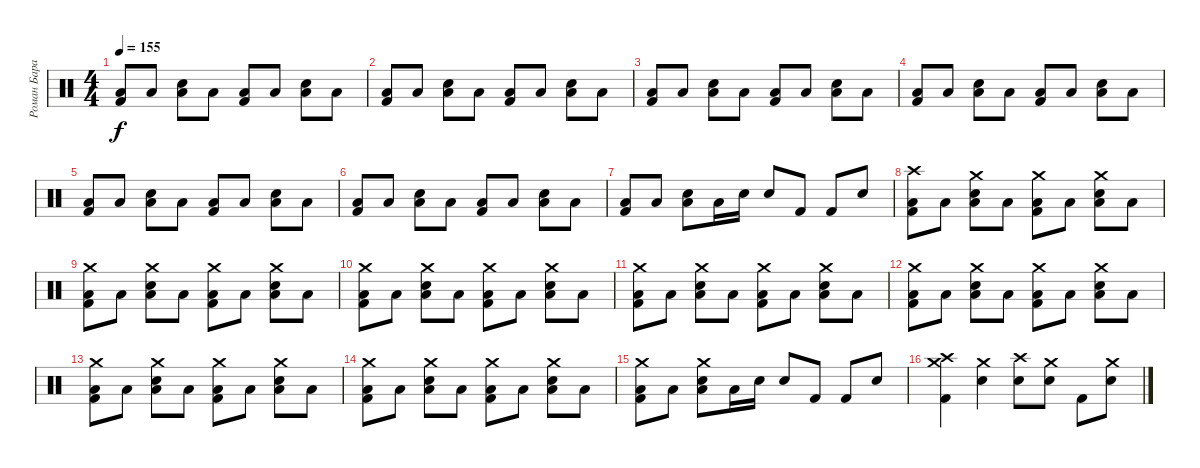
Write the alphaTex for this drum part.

\track ("Роман Баранюк (Meinl, Vic Firth, Peace)" "Роман Бара") {instrument percussion}
\staff {score}
\articulation defaults
\ts (4 4)
\tempo 155
\clef neutral
\ks c
("Low Tom (hit)" "Kick (hit) 2").8{dy f} "Low Tom (hit)".8 ("Snare (hit) 2" "Low Tom (hit)").8 "Low Tom (hit)".8 ("Low Tom (hit)" "Kick (hit) 2").8 "Low Tom (hit)".8 ("Snare (hit) 2" "Low Tom (hit)").8 "Low Tom (hit)".8 |
("Low Tom (hit)" "Kick (hit) 2").8 "Low Tom (hit)".8 ("Snare (hit) 2" "Low Tom (hit)").8 "Low Tom (hit)".8 ("Low Tom (hit)" "Kick (hit) 2").8 "Low Tom (hit)".8 ("Snare (hit) 2" "Low Tom (hit)").8 "Low Tom (hit)".8 |
("Low Tom (hit)" "Kick (hit) 2").8 "Low Tom (hit)".8 ("Snare (hit) 2" "Low Tom (hit)").8 "Low Tom (hit)".8 ("Low Tom (hit)" "Kick (hit) 2").8 "Low Tom (hit)".8 ("Snare (hit) 2" "Low Tom (hit)").8 "Low Tom (hit)".8 |
("Low Tom (hit)" "Kick (hit) 2").8 "Low Tom (hit)".8 ("Snare (hit) 2" "Low Tom (hit)").8 "Low Tom (hit)".8 ("Low Tom (hit)" "Kick (hit) 2").8 "Low Tom (hit)".8 ("Snare (hit) 2" "Low Tom (hit)").8 "Low Tom (hit)".8 |
("Low Tom (hit)" "Kick (hit) 2").8 "Low Tom (hit)".8 ("Snare (hit) 2" "Low Tom (hit)").8 "Low Tom (hit)".8 ("Low Tom (hit)" "Kick (hit) 2").8 "Low Tom (hit)".8 ("Snare (hit) 2" "Low Tom (hit)").8 "Low Tom (hit)".8 |
("Low Tom (hit)" "Kick (hit) 2").8 "Low Tom (hit)".8 ("Snare (hit) 2" "Low Tom (hit)").8 "Low Tom (hit)".8 ("Low Tom (hit)" "Kick (hit) 2").8 "Low Tom (hit)".8 ("Snare (hit) 2" "Low Tom (hit)").8 "Low Tom (hit)".8 |
("Low Tom (hit)" "Kick (hit) 2").8 "Low Tom (hit)".8 ("Snare (hit) 2" "Low Tom (hit)").8 "Low Tom (hit)".16 "Snare (hit) 2".16 "Snare (hit) 2".8 "Kick (hit) 2".8 "Kick (hit) 2".8 "Snare (hit) 2".8 |
("Crash high (hit)" "Low Tom (hit)" "Kick (hit) 2").8 "Low Tom (hit)".8 ("Crash medium (hit)" "Snare (hit) 2" "Low Tom (hit)").8 "Low Tom (hit)".8 ("Crash medium (hit)" "Low Tom (hit)" "Kick (hit) 2").8 "Low Tom (hit)".8 ("Crash medium (hit)" "Snare (hit) 2" "Low Tom (hit)").8 "Low Tom (hit)".8 |
("Crash medium (hit)" "Low Tom (hit)" "Kick (hit) 2").8 "Low Tom (hit)".8 ("Crash medium (hit)" "Snare (hit) 2" "Low Tom (hit)").8 "Low Tom (hit)".8 ("Crash medium (hit)" "Low Tom (hit)" "Kick (hit) 2").8 "Low Tom (hit)".8 ("Crash medium (hit)" "Snare (hit) 2" "Low Tom (hit)").8 "Low Tom (hit)".8 |
("Crash medium (hit)" "Low Tom (hit)" "Kick (hit) 2").8 "Low Tom (hit)".8 ("Crash medium (hit)" "Snare (hit) 2" "Low Tom (hit)").8 "Low Tom (hit)".8 ("Crash medium (hit)" "Low Tom (hit)" "Kick (hit) 2").8 "Low Tom (hit)".8 ("Crash medium (hit)" "Snare (hit) 2" "Low Tom (hit)").8 "Low Tom (hit)".8 |
("Crash medium (hit)" "Low Tom (hit)" "Kick (hit) 2").8 "Low Tom (hit)".8 ("Crash medium (hit)" "Snare (hit) 2" "Low Tom (hit)").8 "Low Tom (hit)".8 ("Crash medium (hit)" "Low Tom (hit)" "Kick (hit) 2").8 "Low Tom (hit)".8 ("Crash medium (hit)" "Snare (hit) 2" "Low Tom (hit)").8 "Low Tom (hit)".8 |
("Crash medium (hit)" "Low Tom (hit)" "Kick (hit) 2").8 "Low Tom (hit)".8 ("Crash medium (hit)" "Snare (hit) 2" "Low Tom (hit)").8 "Low Tom (hit)".8 ("Crash medium (hit)" "Low Tom (hit)" "Kick (hit) 2").8 "Low Tom (hit)".8 ("Crash medium (hit)" "Snare (hit) 2" "Low Tom (hit)").8 "Low Tom (hit)".8 |
("Crash medium (hit)" "Low Tom (hit)" "Kick (hit) 2").8 "Low Tom (hit)".8 ("Crash medium (hit)" "Snare (hit) 2" "Low Tom (hit)").8 "Low Tom (hit)".8 ("Crash medium (hit)" "Low Tom (hit)" "Kick (hit) 2").8 "Low Tom (hit)".8 ("Crash medium (hit)" "Snare (hit) 2" "Low Tom (hit)").8 "Low Tom (hit)".8 |
("Crash medium (hit)" "Low Tom (hit)" "Kick (hit) 2").8 "Low Tom (hit)".8 ("Crash medium (hit)" "Snare (hit) 2" "Low Tom (hit)").8 "Low Tom (hit)".8 ("Crash medium (hit)" "Low Tom (hit)" "Kick (hit) 2").8 "Low Tom (hit)".8 ("Crash medium (hit)" "Snare (hit) 2" "Low Tom (hit)").8 "Low Tom (hit)".8 |
("Crash medium (hit)" "Low Tom (hit)" "Kick (hit) 2").8 "Low Tom (hit)".8 ("Crash medium (hit)" "Snare (hit) 2" "Low Tom (hit)").8 "Low Tom (hit)".16 "Snare (hit) 2".16 "Snare (hit) 2".8 "Kick (hit) 2".8 "Kick (hit) 2".8 "Snare (hit) 2".8 |
("Crash high (hit)" "Crash medium (hit)" "Kick (hit) 2").4 ("Crash medium (hit)" "Snare (hit) 2").4 ("Crash high (hit)" "Snare (hit) 2").8 ("Crash medium (hit)" "Snare (hit) 2").8 "Kick (hit) 2".8 ("Crash medium (hit)" "Snare (hit) 2").8
